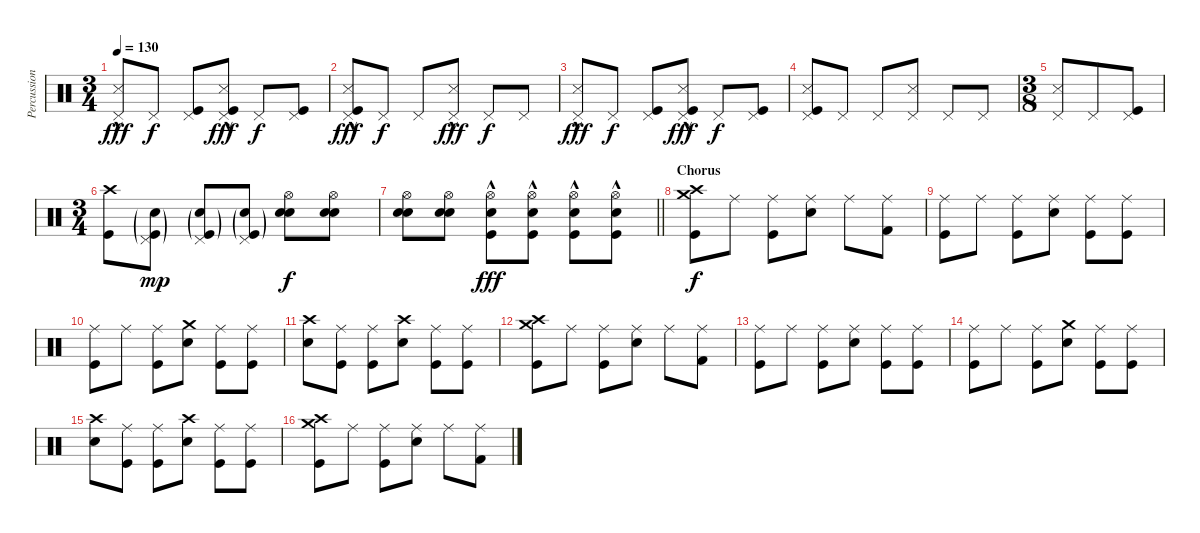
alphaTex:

\track ("Percussion" "Percussion") {instrument percussion}
\staff {score}
\articulation defaults
\ts (3 4)
\tempo 130
\clef neutral
\ks c
("Pedal Hi-Hat (hit)" "Snare (side stick) 3"{hac}).8{dy fff} "Pedal Hi-Hat (hit)".8{dy f} ("Pedal Hi-Hat (hit)" "Kick (hit)").8 ("Pedal Hi-Hat (hit)" "Snare (side stick) 3"{hac} "Kick (hit)").8{dy fff} "Pedal Hi-Hat (hit)".8{dy f} ("Pedal Hi-Hat (hit)" "Kick (hit)").8 |
("Pedal Hi-Hat (hit)" "Snare (side stick) 3"{hac} "Kick (hit)").8{dy fff} "Pedal Hi-Hat (hit)".8{dy f} "Pedal Hi-Hat (hit)".8 ("Pedal Hi-Hat (hit)" "Snare (side stick) 3"{hac}).8{dy fff} "Pedal Hi-Hat (hit)".8{dy f} "Pedal Hi-Hat (hit)".8 |
("Pedal Hi-Hat (hit)" "Snare (side stick) 3"{hac}).8{dy fff} "Pedal Hi-Hat (hit)".8{dy f} ("Pedal Hi-Hat (hit)" "Kick (hit)").8 ("Pedal Hi-Hat (hit)" "Snare (side stick) 3"{hac} "Kick (hit)").8{dy fff} "Pedal Hi-Hat (hit)".8{dy f} ("Pedal Hi-Hat (hit)" "Kick (hit)").8 |
("Pedal Hi-Hat (hit)" "Snare (side stick) 3" "Kick (hit)").8 "Pedal Hi-Hat (hit)".8 "Pedal Hi-Hat (hit)".8 ("Pedal Hi-Hat (hit)" "Snare (side stick) 3").8 "Pedal Hi-Hat (hit)".8 "Pedal Hi-Hat (hit)".8 |
\ts (3 8)
("Pedal Hi-Hat (hit)" "Snare (side stick) 3").8 "Pedal Hi-Hat (hit)".8 ("Pedal Hi-Hat (hit)" "Kick (hit)").8 |
\ts (3 4)
("Crash high (hit)" "Kick (hit)").8 ("Pedal Hi-Hat (hit)"{g} "Snare (hit) 2"{g} "Kick (hit)"{g}).8{dy mp} ("Pedal Hi-Hat (hit)" "Snare (hit) 2"{g} "Kick (hit)"{g}).8 ("Pedal Hi-Hat (hit)" "Snare (hit) 2"{g} "Kick (hit)"{g}).8 ("Hi-Hat (open)" "Snare (hit) 2" "Snare (hit) 2").8{dy f} ("Hi-Hat (open)" "Snare (hit) 2" "Snare (hit) 2").8 |
\barLineRight lightlight
("Hi-Hat (open)" "Snare (hit) 2" "Snare (hit) 2").8 ("Hi-Hat (open)" "Snare (hit) 2" "Snare (hit) 2").8 ("Hi-Hat (open)" "Snare (hit) 2"{hac} "Kick (hit)"{hac}).8{dy fff} ("Hi-Hat (open)" "Snare (hit) 2"{hac} "Kick (hit)"{hac}).8 ("Hi-Hat (open)" "Snare (hit) 2"{hac} "Kick (hit)"{hac}).8 ("Hi-Hat (open)" "Snare (hit) 2"{hac} "Kick (hit)"{hac}).8 |
\section ("" "Chorus")
("Crash medium (hit)" "Crash high (hit)" "Kick (hit)").8{dy f volume 10} "Ride (middle)".8 ("Ride (middle)" "Kick (hit)").8 ("Ride (middle)" "Snare (hit) 2").8 "Ride (middle)".8 ("Ride (middle)" "Kick (hit) 2").8 |
("Ride (middle)" "Kick (hit)").8 "Ride (middle)".8 ("Ride (middle)" "Kick (hit)").8 ("Ride (middle)" "Snare (hit) 2").8 ("Ride (middle)" "Kick (hit)").8 ("Ride (middle)" "Kick (hit)").8 |
("Ride (middle)" "Kick (hit)").8 "Ride (middle)".8 ("Ride (middle)" "Kick (hit)").8 ("Crash medium (hit)" "Snare (hit) 2").8 ("Ride (middle)" "Kick (hit)").8 ("Ride (middle)" "Kick (hit)").8 |
("Crash high (hit)" "Snare (hit) 2").8 ("Ride (middle)" "Kick (hit)").8 ("Ride (middle)" "Kick (hit)").8 ("Crash high (hit)" "Snare (hit) 2").8 ("Ride (middle)" "Kick (hit)").8 ("Ride (middle)" "Kick (hit)").8 |
("Crash medium (hit)" "Crash high (hit)" "Kick (hit)").8 "Ride (middle)".8 ("Ride (middle)" "Kick (hit)").8 ("Ride (middle)" "Snare (hit) 2").8 "Ride (middle)".8 ("Ride (middle)" "Kick (hit) 2").8 |
("Ride (middle)" "Kick (hit)").8 "Ride (middle)".8 ("Ride (middle)" "Kick (hit)").8 ("Ride (middle)" "Snare (hit) 2").8 ("Ride (middle)" "Kick (hit)").8 ("Ride (middle)" "Kick (hit)").8 |
("Ride (middle)" "Kick (hit)").8 "Ride (middle)".8 ("Ride (middle)" "Kick (hit)").8 ("Crash medium (hit)" "Snare (hit) 2").8 ("Ride (middle)" "Kick (hit)").8 ("Ride (middle)" "Kick (hit)").8 |
("Crash high (hit)" "Snare (hit) 2").8 ("Ride (middle)" "Kick (hit)").8 ("Ride (middle)" "Kick (hit)").8 ("Crash high (hit)" "Snare (hit) 2").8 ("Ride (middle)" "Kick (hit)").8 ("Ride (middle)" "Kick (hit)").8 |
("Crash medium (hit)" "Crash high (hit)" "Kick (hit)").8 "Ride (middle)".8 ("Ride (middle)" "Kick (hit)").8 ("Ride (middle)" "Snare (hit) 2").8 "Ride (middle)".8 ("Ride (middle)" "Kick (hit) 2").8
